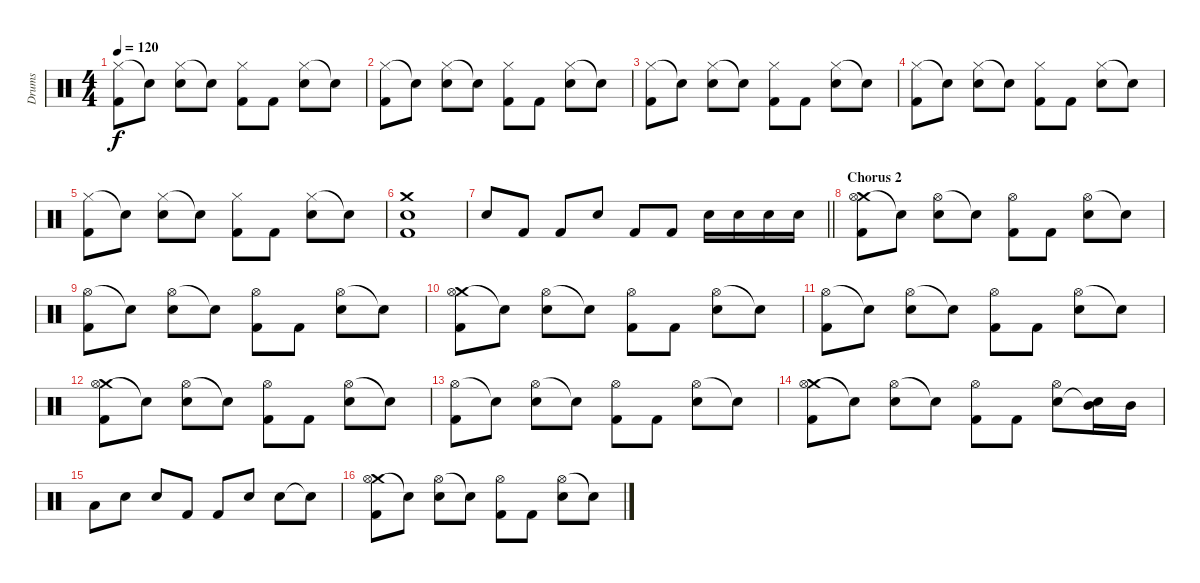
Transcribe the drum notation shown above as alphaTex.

\track ("Drums" "Drums") {instrument percussion}
\staff {score}
\articulation defaults
\ts (4 4)
\tempo 120
\clef neutral
\ks c
("Hi-Hat (closed)" "Kick (hit) 2").8{dy f} "Snare (hit)"{t}.8 ("Hi-Hat (closed)" "Electric Snare (hit)").8 "Snare (hit)"{t}.8 ("Hi-Hat (closed)" "Kick (hit) 2").8 "Kick (hit) 2".8 ("Hi-Hat (closed)" "Electric Snare (hit)").8 "Snare (hit)"{t}.8 |
("Hi-Hat (closed)" "Kick (hit) 2").8 "Snare (hit)"{t}.8 ("Hi-Hat (closed)" "Electric Snare (hit)").8 "Snare (hit)"{t}.8 ("Hi-Hat (closed)" "Kick (hit) 2").8 "Kick (hit) 2".8 ("Hi-Hat (closed)" "Electric Snare (hit)").8 "Snare (hit)"{t}.8 |
("Hi-Hat (closed)" "Kick (hit) 2").8 "Snare (hit)"{t}.8 ("Hi-Hat (closed)" "Electric Snare (hit)").8 "Snare (hit)"{t}.8 ("Hi-Hat (closed)" "Kick (hit) 2").8 "Kick (hit) 2".8 ("Hi-Hat (closed)" "Electric Snare (hit)").8 "Snare (hit)"{t}.8 |
("Hi-Hat (closed)" "Kick (hit) 2").8 "Snare (hit)"{t}.8 ("Hi-Hat (closed)" "Electric Snare (hit)").8 "Snare (hit)"{t}.8 ("Hi-Hat (closed)" "Kick (hit) 2").8 "Kick (hit) 2".8 ("Hi-Hat (closed)" "Electric Snare (hit)").8 "Snare (hit)"{t}.8 |
("Hi-Hat (closed)" "Kick (hit) 2").8 "Snare (hit)"{t}.8 ("Hi-Hat (closed)" "Electric Snare (hit)").8 "Snare (hit)"{t}.8 ("Hi-Hat (closed)" "Kick (hit) 2").8 "Kick (hit) 2".8 ("Hi-Hat (closed)" "Electric Snare (hit)").8 "Snare (hit)"{t}.8 |
("Crash medium (hit)" "Electric Snare (hit)" "Kick (hit) 2").1 |
\barLineRight lightlight "Electric Snare (hit)".8 "Kick (hit) 2".8 "Kick (hit) 2".8 "Electric Snare (hit)".8 "Kick (hit) 2".8 "Kick (hit) 2".8 "Electric Snare (hit)".16 "Electric Snare (hit)".16 "Electric Snare (hit)".16 "Electric Snare (hit)".16
|
\section ("" "Chorus 2")
("Crash medium (hit)" "Hi-Hat (open)" "Kick (hit) 2").8 "Snare (hit)"{t}.8 ("Hi-Hat (open)" "Electric Snare (hit)").8 "Snare (hit)"{t}.8 ("Hi-Hat (open)" "Kick (hit) 2").8 "Kick (hit) 2".8 ("Hi-Hat (open)" "Electric Snare (hit)").8 "Snare (hit)"{t}.8 |
("Hi-Hat (open)" "Kick (hit) 2").8 "Snare (hit)"{t}.8 ("Hi-Hat (open)" "Electric Snare (hit)").8 "Snare (hit)"{t}.8 ("Hi-Hat (open)" "Kick (hit) 2").8 "Kick (hit) 2".8 ("Hi-Hat (open)" "Electric Snare (hit)").8 "Snare (hit)"{t}.8 |
("Crash medium (hit)" "Hi-Hat (open)" "Kick (hit) 2").8 "Snare (hit)"{t}.8 ("Hi-Hat (open)" "Electric Snare (hit)").8 "Snare (hit)"{t}.8 ("Hi-Hat (open)" "Kick (hit) 2").8 "Kick (hit) 2".8 ("Hi-Hat (open)" "Electric Snare (hit)").8 "Snare (hit)"{t}.8 |
("Hi-Hat (open)" "Kick (hit) 2").8 "Snare (hit)"{t}.8 ("Hi-Hat (open)" "Electric Snare (hit)").8 "Snare (hit)"{t}.8 ("Hi-Hat (open)" "Kick (hit) 2").8 "Kick (hit) 2".8 ("Hi-Hat (open)" "Electric Snare (hit)").8 "Snare (hit)"{t}.8 |
("Crash medium (hit)" "Hi-Hat (open)" "Kick (hit) 2").8 "Snare (hit)"{t}.8 ("Hi-Hat (open)" "Electric Snare (hit)").8 "Snare (hit)"{t}.8 ("Hi-Hat (open)" "Kick (hit) 2").8 "Kick (hit) 2".8 ("Hi-Hat (open)" "Electric Snare (hit)").8 "Snare (hit)"{t}.8 |
("Hi-Hat (open)" "Kick (hit) 2").8 "Snare (hit)"{t}.8 ("Hi-Hat (open)" "Electric Snare (hit)").8 "Snare (hit)"{t}.8 ("Hi-Hat (open)" "Kick (hit) 2").8 "Kick (hit) 2".8 ("Hi-Hat (open)" "Electric Snare (hit)").8 "Snare (hit)"{t}.8 |
("Crash medium (hit)" "Hi-Hat (open)" "Kick (hit) 2").8 "Snare (hit)"{t}.8 ("Hi-Hat (open)" "Electric Snare (hit)").8 "Snare (hit)"{t}.8 ("Hi-Hat (open)" "Kick (hit) 2").8 "Kick (hit) 2".8 ("Hi-Hat (open)" "Electric Snare (hit)").8 ("Mid Tom (hit)" "Snare (hit)"{t}).16 "Mid Tom (hit)".16 |
"Low Tom (hit)".8 "Electric Snare (hit)".8 "Electric Snare (hit)".8 "Kick (hit) 2".8 "Kick (hit) 2".8 "Electric Snare (hit)".8 "Electric Snare (hit)".8 "Snare (hit)"{t}.8 |
("Crash medium (hit)" "Hi-Hat (open)" "Kick (hit) 2").8 "Snare (hit)"{t}.8 ("Hi-Hat (open)" "Electric Snare (hit)").8 "Snare (hit)"{t}.8 ("Hi-Hat (open)" "Kick (hit) 2").8 "Kick (hit) 2".8 ("Hi-Hat (open)" "Electric Snare (hit)").8 "Snare (hit)"{t}.8
